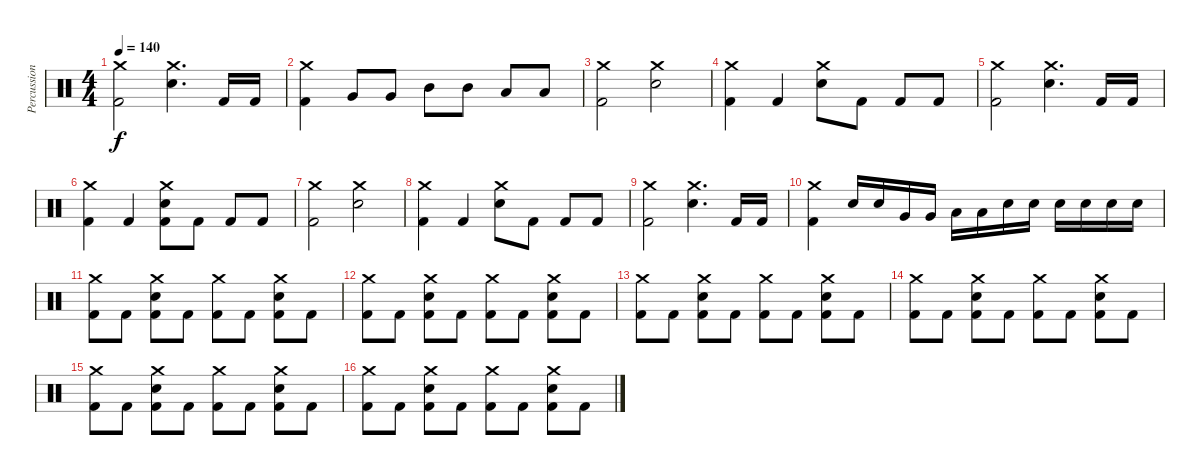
\track ("Percussion" "Percussion") {instrument percussion}
\staff {score}
\articulation defaults
\ts (4 4)
\tempo 140
\clef neutral
\ks c
("Crash medium (hit)" "Kick (hit) 2").2{dy f} ("Crash medium (hit)" "Electric Snare (hit)").4{d} "Kick (hit) 2".16 "Kick (hit) 2".16 |
("Crash medium (hit)" "Kick (hit) 2").4 "Very Low Tom (hit)".8 "Very Low Tom (hit)".8 "Mid Tom (hit)".8 "Mid Tom (hit)".8 "Low Tom (hit)".8 "Low Tom (hit)".8 |
("Crash medium (hit)" "Kick (hit) 2").2 ("Crash medium (hit)" "Electric Snare (hit)").2 |
("Crash medium (hit)" "Kick (hit) 2").4 "Kick (hit) 2".4 ("Crash medium (hit)" "Electric Snare (hit)").8 "Kick (hit) 2".8 "Kick (hit) 2".8 "Kick (hit) 2".8 |
("Crash medium (hit)" "Kick (hit) 2").2 ("Crash medium (hit)" "Electric Snare (hit)").4{d} "Kick (hit) 2".16 "Kick (hit) 2".16 |
("Crash medium (hit)" "Kick (hit) 2").4 "Kick (hit) 2".4 ("Crash medium (hit)" "Electric Snare (hit)" "Kick (hit) 2").8 "Kick (hit) 2".8 "Kick (hit) 2".8 "Kick (hit) 2".8 |
("Crash medium (hit)" "Kick (hit) 2").2 ("Crash medium (hit)" "Electric Snare (hit)").2 |
("Crash medium (hit)" "Kick (hit) 2").4 "Kick (hit) 2".4 ("Crash medium (hit)" "Electric Snare (hit)").8 "Kick (hit) 2".8 "Kick (hit) 2".8 "Kick (hit) 2".8 |
("Crash medium (hit)" "Kick (hit) 2").2 ("Crash medium (hit)" "Electric Snare (hit)").4{d} "Kick (hit) 2".16 "Kick (hit) 2".16 |
("Crash medium (hit)" "Kick (hit) 2").4 "Electric Snare (hit)".16 "Electric Snare (hit)".16 "Very Low Tom (hit)".16 "Very Low Tom (hit)".16 "Low Tom (hit)".16 "Low Tom (hit)".16 "Electric Snare (hit)".16 "Electric Snare (hit)".16 "Electric Snare (hit)".16 "Electric Snare (hit)".16 "Electric Snare (hit)".16 "Electric Snare (hit)".16 |
("Crash medium (hit)" "Kick (hit) 2").8 "Kick (hit) 2".8 ("Crash medium (hit)" "Electric Snare (hit)" "Kick (hit) 2").8 "Kick (hit) 2".8 ("Crash medium (hit)" "Kick (hit) 2").8 "Kick (hit) 2".8 ("Crash medium (hit)" "Electric Snare (hit)" "Kick (hit) 2").8 "Kick (hit) 2".8 |
("Crash medium (hit)" "Kick (hit) 2").8 "Kick (hit) 2".8 ("Crash medium (hit)" "Electric Snare (hit)" "Kick (hit) 2").8 "Kick (hit) 2".8 ("Crash medium (hit)" "Kick (hit) 2").8 "Kick (hit) 2".8 ("Crash medium (hit)" "Electric Snare (hit)" "Kick (hit) 2").8 "Kick (hit) 2".8 |
("Crash medium (hit)" "Kick (hit) 2").8 "Kick (hit) 2".8 ("Crash medium (hit)" "Electric Snare (hit)" "Kick (hit) 2").8 "Kick (hit) 2".8 ("Crash medium (hit)" "Kick (hit) 2").8 "Kick (hit) 2".8 ("Crash medium (hit)" "Electric Snare (hit)" "Kick (hit) 2").8 "Kick (hit) 2".8 |
("Crash medium (hit)" "Kick (hit) 2").8 "Kick (hit) 2".8 ("Crash medium (hit)" "Electric Snare (hit)" "Kick (hit) 2").8 "Kick (hit) 2".8 ("Crash medium (hit)" "Kick (hit) 2").8 "Kick (hit) 2".8 ("Crash medium (hit)" "Electric Snare (hit)" "Kick (hit) 2").8 "Kick (hit) 2".8 |
("Crash medium (hit)" "Kick (hit) 2").8 "Kick (hit) 2".8 ("Crash medium (hit)" "Electric Snare (hit)" "Kick (hit) 2").8 "Kick (hit) 2".8 ("Crash medium (hit)" "Kick (hit) 2").8 "Kick (hit) 2".8 ("Crash medium (hit)" "Electric Snare (hit)" "Kick (hit) 2").8 "Kick (hit) 2".8 |
("Crash medium (hit)" "Kick (hit) 2").8 "Kick (hit) 2".8 ("Crash medium (hit)" "Electric Snare (hit)" "Kick (hit) 2").8 "Kick (hit) 2".8 ("Crash medium (hit)" "Kick (hit) 2").8 "Kick (hit) 2".8 ("Crash medium (hit)" "Electric Snare (hit)" "Kick (hit) 2").8 "Kick (hit) 2".8
